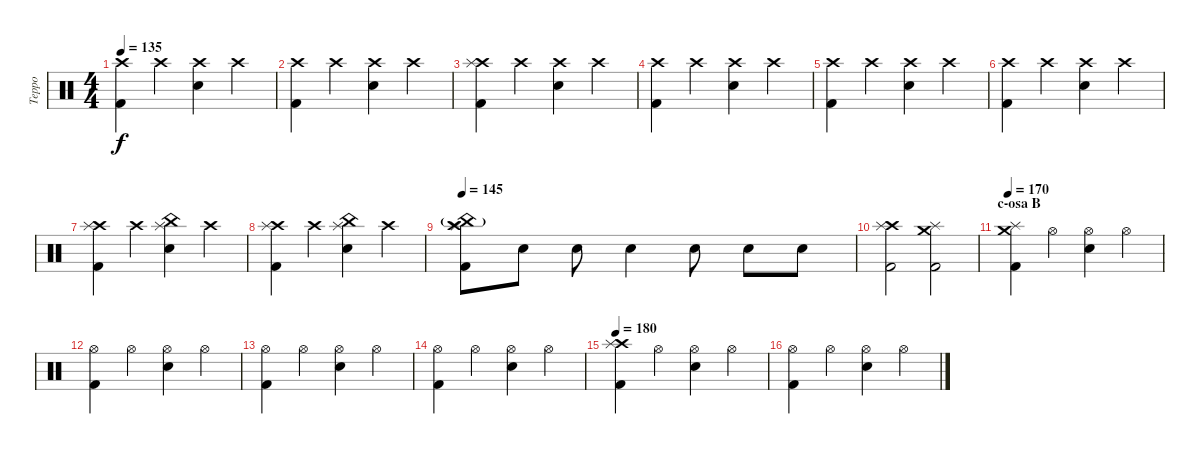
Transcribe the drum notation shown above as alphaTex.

\track ("Teppo" "Teppo") {instrument percussion}
\staff {score}
\articulation defaults
\ts (4 4)
\tempo 135
\clef neutral
\ks c
("Crash high (hit)" "Kick (hit) 2").4{dy f} "Crash high (hit)".4 ("Crash high (hit)" "Electric Snare (hit)").4 "Crash high (hit)".4 |
("Crash high (hit)" "Kick (hit) 2").4 "Crash high (hit)".4 ("Crash high (hit)" "Electric Snare (hit)").4 "Crash high (hit)".4 |
("Crash high (hit)" "Splash (hit)" "Kick (hit) 2").4 "Crash high (hit)".4 ("Crash high (hit)" "Electric Snare (hit)").4 "Crash high (hit)".4 |
("Crash high (hit)" "Kick (hit) 2").4 "Crash high (hit)".4 ("Crash high (hit)" "Electric Snare (hit)").4 "Crash high (hit)".4 |
("Crash high (hit)" "Kick (hit) 2").4 "Crash high (hit)".4 ("Crash high (hit)" "Electric Snare (hit)").4 "Crash high (hit)".4 |
("Crash high (hit)" "Kick (hit) 2").4 "Crash high (hit)".4 ("Crash high (hit)" "Electric Snare (hit)").4 "Crash high (hit)".4 |
("Crash high (hit)" "Splash (hit)" "Kick (hit) 2").4 "Crash high (hit)".4 ("China (hit)" "Splash (hit)" "Electric Snare (hit)").4 "Crash high (hit)".4 |
("Crash high (hit)" "Splash (hit)" "Kick (hit) 2").4 "Crash high (hit)".4 ("China (hit)" "Splash (hit)" "Electric Snare (hit)").4 "Crash high (hit)".4 |
\tempo 145
("Crash high (hit)" "Splash (hit)" "China (hit)"{g} "Kick (hit) 2").8 "Electric Snare (hit)".8 "Electric Snare (hit)".8 "Electric Snare (hit)".4 "Electric Snare (hit)".8 "Electric Snare (hit)".8 "Electric Snare (hit)".8 |
("Crash high (hit)" "Splash (hit)" "Kick (hit) 2").2 ("Crash medium (hit)" "Splash (hit)" "Kick (hit) 2").2 |
\section ("" "c-osa B")
\tempo 170
("Crash medium (hit)" "Splash (hit)" "Kick (hit) 2").4 "Hi-Hat (open)".4 ("Hi-Hat (open)" "Electric Snare (hit)").4 "Hi-Hat (open)".4 |
("Hi-Hat (open)" "Kick (hit) 2").4 "Hi-Hat (open)".4 ("Hi-Hat (open)" "Electric Snare (hit)").4 "Hi-Hat (open)".4 |
("Hi-Hat (open)" "Kick (hit) 2").4 "Hi-Hat (open)".4 ("Hi-Hat (open)" "Electric Snare (hit)").4 "Hi-Hat (open)".4 |
("Hi-Hat (open)" "Kick (hit) 2").4 "Hi-Hat (open)".4 ("Hi-Hat (open)" "Electric Snare (hit)").4 "Hi-Hat (open)".4 |
\tempo 180
("Crash high (hit)" "Splash (hit)" "Kick (hit) 2").4 "Hi-Hat (open)".4 ("Hi-Hat (open)" "Electric Snare (hit)").4 "Hi-Hat (open)".4 |
("Hi-Hat (open)" "Kick (hit) 2").4 "Hi-Hat (open)".4 ("Hi-Hat (open)" "Electric Snare (hit)").4 "Hi-Hat (open)".4
